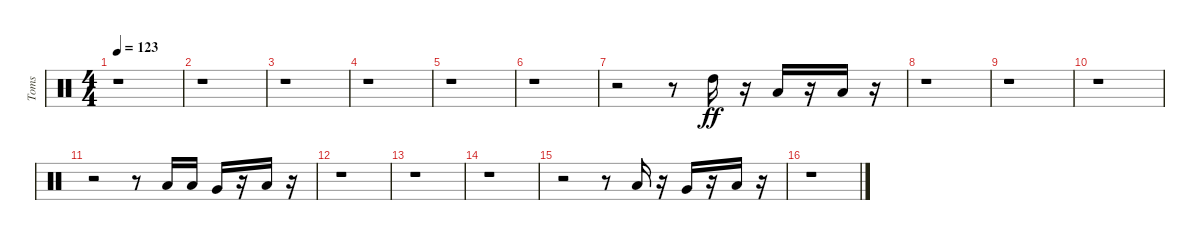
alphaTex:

\track ("Toms" "Toms") {instrument percussion}
\staff {score}
\articulation defaults
\ts (4 4)
\tempo 123
\clef neutral
\ks c
r.1{dy ff} |
r.1 |
r.1 |
r.1 |
r.1 |
r.1 |
r.2 r.8 "High Tom (hit)".16 r.16 "Low Tom (hit)".16 r.16 "Low Floor Tom (hit)".16 r.16 |
r.1 |
r.1 |
r.1 |
r.2 r.8 "Low Tom (hit)".16 "Low Tom (hit)".16 "Very Low Tom (hit)".16 r.16 "Low Floor Tom (hit)".16 r.16 |
r.1 |
r.1 |
r.1 |
r.2 r.8 "Low Tom (hit)".16 r.16 "Very Low Tom (hit)".16 r.16 "Low Floor Tom (hit)".16 r.16 |
r.1
